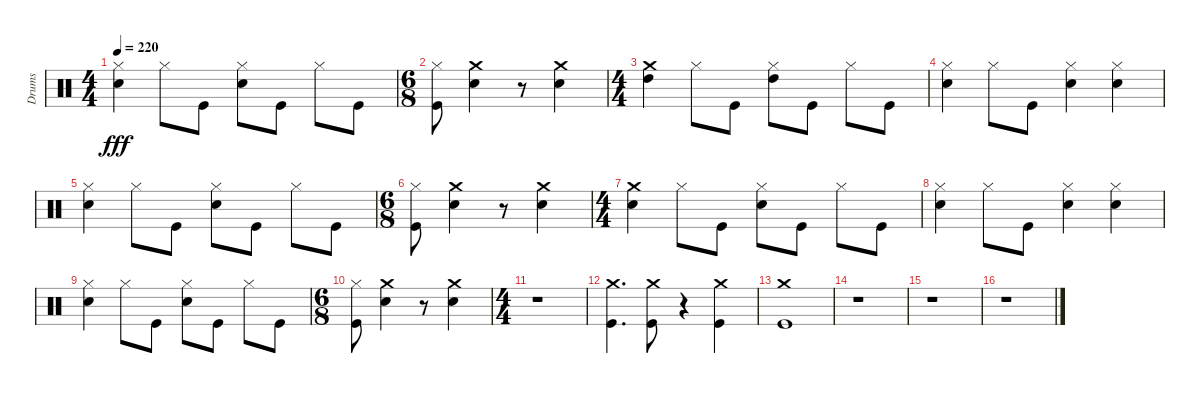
\track ("Drums" "Drums") {instrument percussion}
\staff {score}
\articulation defaults
\ts (4 4)
\tempo 220
\clef neutral
\ks c
("Snare (hit) 2" "Hi-Hat (closed)").4{dy fff} "Hi-Hat (closed)".8 "Kick (hit)".8 ("Snare (hit) 2" "Hi-Hat (closed)").8 "Kick (hit)".8 "Hi-Hat (closed)".8 "Kick (hit)".8 |
\ts (6 8)
("Hi-Hat (closed)" "Kick (hit)").8 ("Snare (hit) 2" "Crash medium (hit)").4 r.8 ("Snare (hit) 2" "Crash medium (hit)").4 |
\ts (4 4)
("High Tom (hit)" "Crash medium (hit)").4 "Hi-Hat (closed)".8 "Kick (hit)".8 ("High Tom (hit)" "Hi-Hat (closed)").8 "Kick (hit)".8 "Hi-Hat (closed)".8 "Kick (hit)".8 |
("Snare (hit) 2" "Hi-Hat (closed)").4 "Hi-Hat (closed)".8 "Kick (hit)".8 ("Hi-Hat (closed)" "Snare (hit) 2").4 ("Snare (hit) 2" "Hi-Hat (closed)").4 |
("Snare (hit) 2" "Hi-Hat (closed)").4 "Hi-Hat (closed)".8 "Kick (hit)".8 ("Snare (hit) 2" "Hi-Hat (closed)").8 "Kick (hit)".8 "Hi-Hat (closed)".8 "Kick (hit)".8 |
\ts (6 8)
("Hi-Hat (closed)" "Kick (hit)").8 ("Snare (hit) 2" "Crash medium (hit)").4 r.8 ("Snare (hit) 2" "Crash medium (hit)").4 |
\ts (4 4)
("Snare (hit) 2" "Crash medium (hit)").4 "Hi-Hat (closed)".8 "Kick (hit)".8 ("Hi-Hat (closed)" "Snare (hit) 2").8 "Kick (hit)".8 "Hi-Hat (closed)".8 "Kick (hit)".8 |
("Hi-Hat (closed)" "Snare (hit) 2").4 "Hi-Hat (closed)".8 "Kick (hit)".8 ("Hi-Hat (closed)" "Snare (hit) 2").4 ("Snare (hit) 2" "Hi-Hat (closed)").4 |
("Hi-Hat (closed)" "Snare (hit) 2").4 "Hi-Hat (closed)".8 "Kick (hit)".8 ("Hi-Hat (closed)" "Snare (hit) 2").8 "Kick (hit)".8 "Hi-Hat (closed)".8 "Kick (hit)".8 |
\ts (6 8)
("Hi-Hat (closed)" "Kick (hit)").8 ("Snare (hit) 2" "Crash medium (hit)").4 r.8 ("Snare (hit) 2" "Crash medium (hit)").4 |
\ts (4 4)
r.1 |
("Kick (hit)" "Crash medium (hit)").4{d} ("Kick (hit)" "Crash medium (hit)").8 r.4 ("Kick (hit)" "Crash medium (hit)").4 |
("Crash medium (hit)" "Kick (hit)").1 |
r.1 |
r.1 |
r.1
